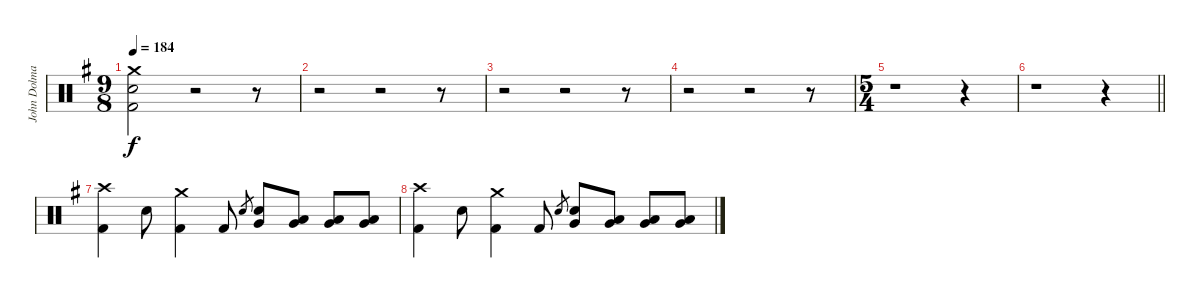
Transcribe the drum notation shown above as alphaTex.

\track ("John Dolmayan [Drums]" "John Dolma") {instrument percussion}
\staff {score}
\articulation defaults
\ts (9 8)
\tempo 184
\clef neutral
\ks eminor
("Crash medium (hit)" "Electric Snare (hit)" "Kick (hit) 2").2{dy f} r.2 r.8 |
r.2 r.2 r.8 |
r.2 r.2 r.8 |
r.2 r.2 r.8 |
\ts (5 4)
r.1 r.4 |
\barLineRight lightlight
r.1 r.4 |
("Crash high (hit)" "Kick (hit) 2").4 "Electric Snare (hit)".8 ("Crash medium (hit)" "Kick (hit) 2").4 "Kick (hit) 2".8 "Electric Snare (hit)".8{gr} ("Very Low Tom (hit)" "Electric Snare (hit)").8 ("Low Tom (hit)" "Very Low Tom (hit)").8 ("Very Low Tom (hit)" "Low Floor Tom (hit)").8 ("Very Low Tom (hit)" "Low Floor Tom (hit)").8 |
("Crash high (hit)" "Kick (hit) 2").4 "Electric Snare (hit)".8 ("Crash medium (hit)" "Kick (hit) 2").4 "Kick (hit) 2".8 "Electric Snare (hit)".8{gr} ("Very Low Tom (hit)" "Electric Snare (hit)").8 ("Low Tom (hit)" "Very Low Tom (hit)").8 ("Very Low Tom (hit)" "Low Floor Tom (hit)").8 ("Very Low Tom (hit)" "Low Floor Tom (hit)").8
